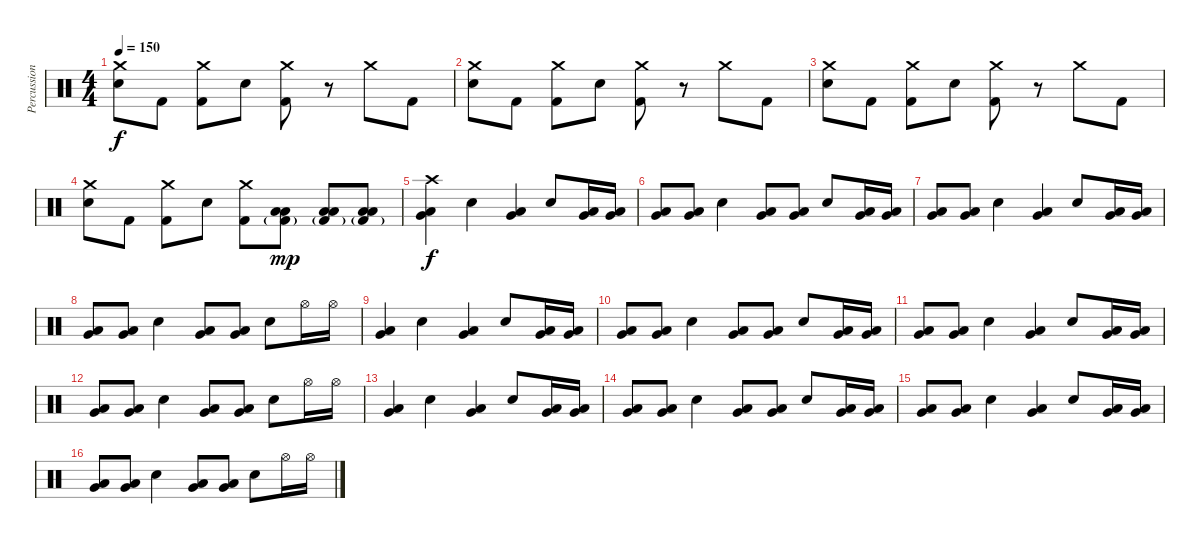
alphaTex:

\track ("Percussion" "Percussion") {instrument percussion}
\staff {score}
\articulation defaults
\ts (4 4)
\tempo 150
\clef neutral
\ks c
("Electric Snare (hit)" "Crash medium (hit)").8{dy f} "Kick (hit) 2".8 ("Kick (hit) 2" "Crash medium (hit)").8 "Electric Snare (hit)".8 ("Kick (hit) 2" "Crash medium (hit)").8 r.8 "Crash medium (hit)".8 "Kick (hit) 2".8 |
("Electric Snare (hit)" "Crash medium (hit)").8 "Kick (hit) 2".8 ("Kick (hit) 2" "Crash medium (hit)").8 "Electric Snare (hit)".8 ("Kick (hit) 2" "Crash medium (hit)").8 r.8 "Crash medium (hit)".8 "Kick (hit) 2".8 |
("Electric Snare (hit)" "Crash medium (hit)").8 "Kick (hit) 2".8 ("Kick (hit) 2" "Crash medium (hit)").8 "Electric Snare (hit)".8 ("Kick (hit) 2" "Crash medium (hit)").8 r.8 "Crash medium (hit)".8 "Kick (hit) 2".8 |
("Electric Snare (hit)" "Crash medium (hit)").8 "Kick (hit) 2".8 ("Kick (hit) 2" "Crash medium (hit)").8 "Electric Snare (hit)".8 ("Kick (hit) 2" "Crash medium (hit)").8 ("Low Tom (hit)" "Low Floor Tom (hit)" "Kick (hit) 2"{g}).8{dy mp} ("Low Tom (hit)" "Low Floor Tom (hit)" "Kick (hit) 2"{g}).8 ("Low Tom (hit)" "Low Floor Tom (hit)" "Kick (hit) 2"{g}).8 |
("Low Tom (hit)" "Very Low Tom (hit)" "Crash high (hit)").4{dy f} "Electric Snare (hit)".4 ("Low Tom (hit)" "Very Low Tom (hit)").4 "Electric Snare (hit)".8 ("Low Tom (hit)" "Very Low Tom (hit)").16 ("Very Low Tom (hit)" "Low Floor Tom (hit)").16 |
("Very Low Tom (hit)" "Low Floor Tom (hit)").8 ("Very Low Tom (hit)" "Low Floor Tom (hit)").8 "Electric Snare (hit)".4 ("Low Tom (hit)" "Very Low Tom (hit)").8 ("Low Tom (hit)" "Very Low Tom (hit)").8 "Electric Snare (hit)".8 ("Low Tom (hit)" "Very Low Tom (hit)").16 ("Very Low Tom (hit)" "Low Floor Tom (hit)").16 |
("Very Low Tom (hit)" "Low Floor Tom (hit)").8 ("Very Low Tom (hit)" "Low Floor Tom (hit)").8 "Electric Snare (hit)".4 ("Low Tom (hit)" "Very Low Tom (hit)").4 "Electric Snare (hit)".8 ("Low Tom (hit)" "Very Low Tom (hit)").16 ("Very Low Tom (hit)" "Low Floor Tom (hit)").16 |
("Very Low Tom (hit)" "Low Floor Tom (hit)").8 ("Very Low Tom (hit)" "Low Floor Tom (hit)").8 "Electric Snare (hit)".4 ("Low Tom (hit)" "Very Low Tom (hit)").8 ("Low Tom (hit)" "Very Low Tom (hit)").8 "Electric Snare (hit)".8 "Hi-Hat (open)".16 "Hi-Hat (open)".16 |
("Low Tom (hit)" "Very Low Tom (hit)").4 "Electric Snare (hit)".4 ("Low Tom (hit)" "Very Low Tom (hit)").4 "Electric Snare (hit)".8 ("Low Tom (hit)" "Very Low Tom (hit)").16 ("Very Low Tom (hit)" "Low Floor Tom (hit)").16 |
("Very Low Tom (hit)" "Low Floor Tom (hit)").8 ("Very Low Tom (hit)" "Low Floor Tom (hit)").8 "Electric Snare (hit)".4 ("Low Tom (hit)" "Very Low Tom (hit)").8 ("Low Tom (hit)" "Very Low Tom (hit)").8 "Electric Snare (hit)".8 ("Low Tom (hit)" "Very Low Tom (hit)").16 ("Very Low Tom (hit)" "Low Floor Tom (hit)").16 |
("Very Low Tom (hit)" "Low Floor Tom (hit)").8 ("Very Low Tom (hit)" "Low Floor Tom (hit)").8 "Electric Snare (hit)".4 ("Low Tom (hit)" "Very Low Tom (hit)").4 "Electric Snare (hit)".8 ("Low Tom (hit)" "Very Low Tom (hit)").16 ("Very Low Tom (hit)" "Low Floor Tom (hit)").16 |
("Very Low Tom (hit)" "Low Floor Tom (hit)").8 ("Very Low Tom (hit)" "Low Floor Tom (hit)").8 "Electric Snare (hit)".4 ("Low Tom (hit)" "Very Low Tom (hit)").8 ("Low Tom (hit)" "Very Low Tom (hit)").8 "Electric Snare (hit)".8 "Hi-Hat (open)".16 "Hi-Hat (open)".16 |
("Low Tom (hit)" "Very Low Tom (hit)").4 "Electric Snare (hit)".4 ("Low Tom (hit)" "Very Low Tom (hit)").4 "Electric Snare (hit)".8 ("Low Tom (hit)" "Very Low Tom (hit)").16 ("Very Low Tom (hit)" "Low Floor Tom (hit)").16 |
("Very Low Tom (hit)" "Low Floor Tom (hit)").8 ("Very Low Tom (hit)" "Low Floor Tom (hit)").8 "Electric Snare (hit)".4 ("Low Tom (hit)" "Very Low Tom (hit)").8 ("Low Tom (hit)" "Very Low Tom (hit)").8 "Electric Snare (hit)".8 ("Low Tom (hit)" "Very Low Tom (hit)").16 ("Very Low Tom (hit)" "Low Floor Tom (hit)").16 |
("Very Low Tom (hit)" "Low Floor Tom (hit)").8 ("Very Low Tom (hit)" "Low Floor Tom (hit)").8 "Electric Snare (hit)".4 ("Low Tom (hit)" "Very Low Tom (hit)").4 "Electric Snare (hit)".8 ("Low Tom (hit)" "Very Low Tom (hit)").16 ("Very Low Tom (hit)" "Low Floor Tom (hit)").16 |
("Very Low Tom (hit)" "Low Floor Tom (hit)").8 ("Very Low Tom (hit)" "Low Floor Tom (hit)").8 "Electric Snare (hit)".4 ("Low Tom (hit)" "Very Low Tom (hit)").8 ("Low Tom (hit)" "Very Low Tom (hit)").8 "Electric Snare (hit)".8 "Hi-Hat (open)".16 "Hi-Hat (open)".16
